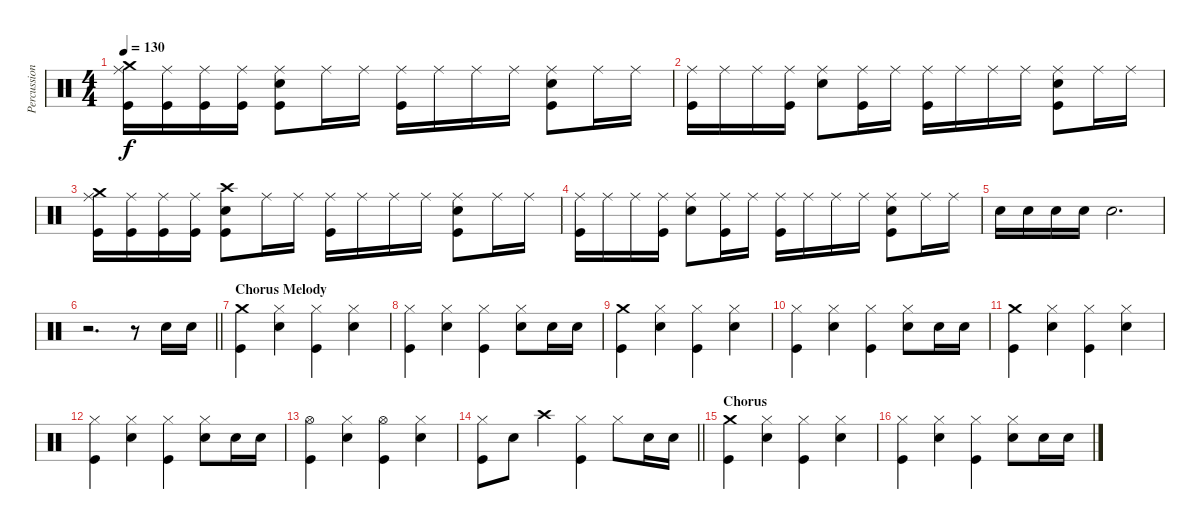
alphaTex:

\track ("Percussion" "Percussion") {instrument percussion}
\staff {score}
\articulation defaults
\ts (4 4)
\tempo 130
\clef neutral
\ks c
("Crash medium (hit)" "Ride (middle)" "Kick (hit)").16{dy f} ("Ride (middle)" "Kick (hit)").16 ("Ride (middle)" "Kick (hit)").16 ("Ride (middle)" "Kick (hit)").16 ("Ride (middle)" "Electric Snare (hit)" "Kick (hit)").8 "Ride (middle)".16 "Ride (middle)".16 ("Ride (middle)" "Kick (hit)").16 "Ride (middle)".16 "Ride (middle)".16 "Ride (middle)".16 ("Ride (middle)" "Electric Snare (hit)" "Kick (hit)").8 "Ride (middle)".16 "Ride (middle)".16 |
("Ride (middle)" "Kick (hit)").16 "Ride (middle)".16 "Ride (middle)".16 ("Ride (middle)" "Kick (hit)").16 ("Ride (middle)" "Electric Snare (hit)").8 ("Ride (middle)" "Kick (hit)").16 "Ride (middle)".16 ("Ride (middle)" "Kick (hit)").16 "Ride (middle)".16 "Ride (middle)".16 "Ride (middle)".16 ("Ride (middle)" "Electric Snare (hit)" "Kick (hit)").8 "Ride (middle)".16 "Ride (middle)".16 |
("Crash medium (hit)" "Ride (middle)" "Kick (hit)").16 ("Ride (middle)" "Kick (hit)").16 ("Ride (middle)" "Kick (hit)").16 ("Ride (middle)" "Kick (hit)").16 ("Crash high (hit)" "Electric Snare (hit)" "Kick (hit)").8 "Ride (middle)".16 "Ride (middle)".16 ("Ride (middle)" "Kick (hit)").16 "Ride (middle)".16 "Ride (middle)".16 "Ride (middle)".16 ("Ride (middle)" "Electric Snare (hit)" "Kick (hit)").8 "Ride (middle)".16 "Ride (middle)".16 |
("Ride (middle)" "Kick (hit)").16 "Ride (middle)".16 "Ride (middle)".16 ("Ride (middle)" "Kick (hit)").16 ("Ride (middle)" "Electric Snare (hit)").8 ("Ride (middle)" "Kick (hit)").16 "Ride (middle)".16 ("Ride (middle)" "Kick (hit)").16 "Ride (middle)".16 "Ride (middle)".16 "Ride (middle)".16 ("Ride (middle)" "Electric Snare (hit)" "Kick (hit)").8 "Ride (middle)".16 "Ride (middle)".16 |
"Electric Snare (hit)".16 "Electric Snare (hit)".16 "Electric Snare (hit)".16 "Electric Snare (hit)".16 "Electric Snare (hit)".2{d} |
\barLineRight lightlight
r.2{d} r.8 "Electric Snare (hit)".16 "Electric Snare (hit)".16 |
\section ("" "Chorus Melody")
("Crash medium (hit)" "Kick (hit)").4 ("Hi-Hat (closed)" "Electric Snare (hit)").4 ("Hi-Hat (closed)" "Kick (hit)").4 ("Hi-Hat (closed)" "Electric Snare (hit)").4 |
("Hi-Hat (closed)" "Kick (hit)").4 ("Hi-Hat (closed)" "Electric Snare (hit)").4 ("Hi-Hat (closed)" "Kick (hit)").4 ("Hi-Hat (closed)" "Electric Snare (hit)").8 "Electric Snare (hit)".16 "Electric Snare (hit)".16 |
("Crash medium (hit)" "Kick (hit)").4 ("Hi-Hat (closed)" "Electric Snare (hit)").4 ("Hi-Hat (closed)" "Kick (hit)").4 ("Hi-Hat (closed)" "Electric Snare (hit)").4 |
("Hi-Hat (closed)" "Kick (hit)").4 ("Hi-Hat (closed)" "Electric Snare (hit)").4 ("Hi-Hat (closed)" "Kick (hit)").4 ("Hi-Hat (closed)" "Electric Snare (hit)").8 "Electric Snare (hit)".16 "Electric Snare (hit)".16 |
("Crash medium (hit)" "Kick (hit)").4 ("Hi-Hat (closed)" "Electric Snare (hit)").4 ("Hi-Hat (closed)" "Kick (hit)").4 ("Hi-Hat (closed)" "Electric Snare (hit)").4 |
("Hi-Hat (closed)" "Kick (hit)").4 ("Hi-Hat (closed)" "Electric Snare (hit)").4 ("Hi-Hat (closed)" "Kick (hit)").4 ("Hi-Hat (closed)" "Electric Snare (hit)").8 "Electric Snare (hit)".16 "Electric Snare (hit)".16 |
("Hi-Hat (open)" "Kick (hit)").4 ("Hi-Hat (closed)" "Electric Snare (hit)").4 ("Hi-Hat (open)" "Kick (hit)").4 ("Hi-Hat (closed)" "Electric Snare (hit)").4 |
\barLineRight lightlight
("Hi-Hat (closed)" "Kick (hit)").8 "Electric Snare (hit)".8 "Crash high (hit)".4 ("Hi-Hat (closed)" "Kick (hit)").4 "Hi-Hat (closed)".8 "Electric Snare (hit)".16 "Electric Snare (hit)".16 |
\section ("" "Chorus")
("Crash medium (hit)" "Kick (hit)").4 ("Hi-Hat (closed)" "Electric Snare (hit)").4 ("Hi-Hat (closed)" "Kick (hit)").4 ("Hi-Hat (closed)" "Electric Snare (hit)").4 |
("Hi-Hat (closed)" "Kick (hit)").4 ("Hi-Hat (closed)" "Electric Snare (hit)").4 ("Hi-Hat (closed)" "Kick (hit)").4 ("Hi-Hat (closed)" "Electric Snare (hit)").8 "Electric Snare (hit)".16 "Electric Snare (hit)".16
